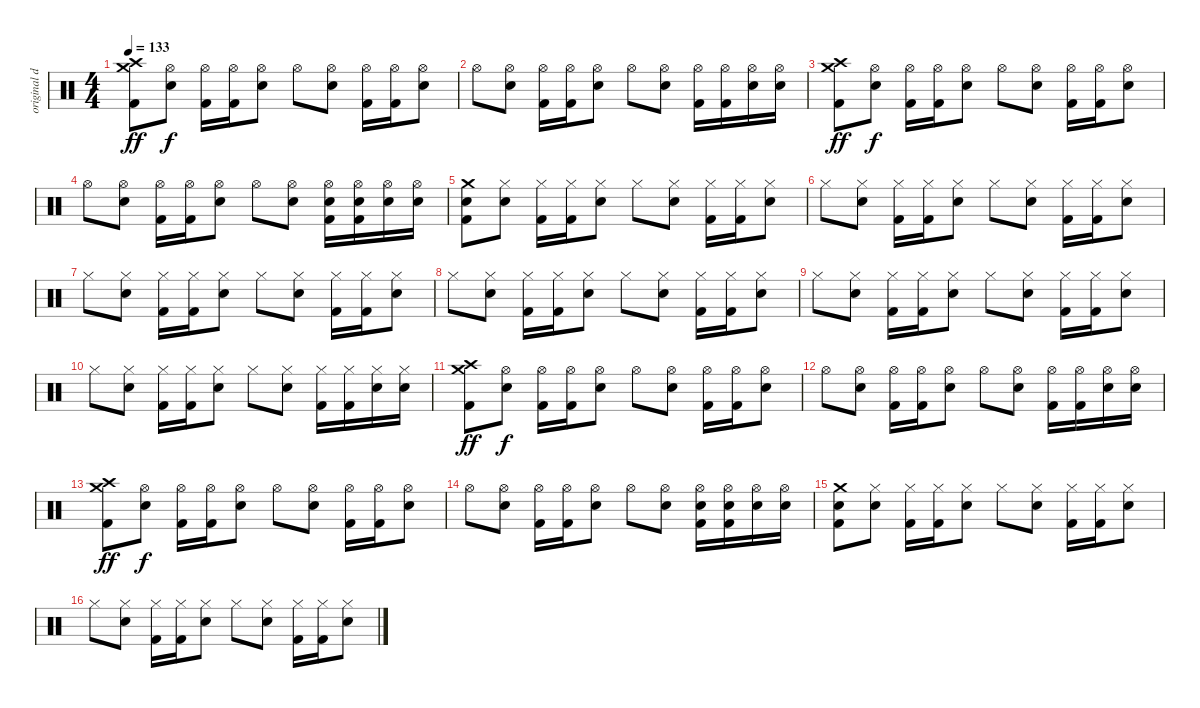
\track ("original drums" "original d") {instrument percussion}
\staff {score}
\articulation defaults
\ts (4 4)
\tempo 133
\clef neutral
\ks c
("Crash high (hit)" "Crash medium (hit)" "Kick (hit) 2").8{dy ff} ("Hi-Hat (open)" "Electric Snare (hit)").8{dy f} ("Hi-Hat (open)" "Kick (hit) 2").16 ("Hi-Hat (open)" "Kick (hit) 2").16 ("Hi-Hat (open)" "Electric Snare (hit)").8 "Hi-Hat (open)".8 ("Hi-Hat (open)" "Electric Snare (hit)").8 ("Hi-Hat (open)" "Kick (hit) 2").16 ("Hi-Hat (open)" "Kick (hit) 2").16 ("Hi-Hat (open)" "Electric Snare (hit)").8 |
"Hi-Hat (open)".8 ("Hi-Hat (open)" "Electric Snare (hit)").8 ("Hi-Hat (open)" "Kick (hit) 2").16 ("Hi-Hat (open)" "Kick (hit) 2").16 ("Hi-Hat (open)" "Electric Snare (hit)").8 "Hi-Hat (open)".8 ("Hi-Hat (open)" "Electric Snare (hit)").8 ("Hi-Hat (open)" "Kick (hit) 2").16 ("Hi-Hat (open)" "Kick (hit) 2").16 ("Hi-Hat (open)" "Electric Snare (hit)").16 ("Hi-Hat (open)" "Electric Snare (hit)").16 |
("Crash high (hit)" "Crash medium (hit)" "Kick (hit) 2").8{dy ff} ("Hi-Hat (open)" "Electric Snare (hit)").8{dy f} ("Hi-Hat (open)" "Kick (hit) 2").16 ("Hi-Hat (open)" "Kick (hit) 2").16 ("Hi-Hat (open)" "Electric Snare (hit)").8 "Hi-Hat (open)".8 ("Hi-Hat (open)" "Electric Snare (hit)").8 ("Hi-Hat (open)" "Kick (hit) 2").16 ("Hi-Hat (open)" "Kick (hit) 2").16 ("Hi-Hat (open)" "Electric Snare (hit)").8 |
"Hi-Hat (open)".8 ("Hi-Hat (open)" "Electric Snare (hit)").8 ("Hi-Hat (open)" "Kick (hit) 2").16 ("Hi-Hat (open)" "Kick (hit) 2").16 ("Hi-Hat (open)" "Electric Snare (hit)").8 "Hi-Hat (open)".8 ("Hi-Hat (open)" "Electric Snare (hit)").8 ("Hi-Hat (open)" "Electric Snare (hit)" "Kick (hit) 2").16 ("Hi-Hat (open)" "Electric Snare (hit)" "Kick (hit) 2").16 ("Hi-Hat (open)" "Electric Snare (hit)").16 ("Hi-Hat (open)" "Electric Snare (hit)").16 |
("Crash medium (hit)" "Electric Snare (hit)" "Kick (hit) 2").8 ("Hi-Hat (closed)" "Electric Snare (hit)").8 ("Hi-Hat (closed)" "Kick (hit) 2").16 ("Hi-Hat (closed)" "Kick (hit) 2").16 ("Hi-Hat (closed)" "Electric Snare (hit)").8 "Hi-Hat (closed)".8 ("Hi-Hat (closed)" "Electric Snare (hit)").8 ("Hi-Hat (closed)" "Kick (hit) 2").16 ("Hi-Hat (closed)" "Kick (hit) 2").16 ("Hi-Hat (closed)" "Electric Snare (hit)").8 |
"Hi-Hat (closed)".8 ("Hi-Hat (closed)" "Electric Snare (hit)").8 ("Hi-Hat (closed)" "Kick (hit) 2").16 ("Hi-Hat (closed)" "Kick (hit) 2").16 ("Hi-Hat (closed)" "Electric Snare (hit)").8 "Hi-Hat (closed)".8 ("Hi-Hat (closed)" "Electric Snare (hit)").8 ("Hi-Hat (closed)" "Kick (hit) 2").16 ("Hi-Hat (closed)" "Kick (hit) 2").16 ("Hi-Hat (closed)" "Electric Snare (hit)").8 |
"Hi-Hat (closed)".8 ("Hi-Hat (closed)" "Electric Snare (hit)").8 ("Hi-Hat (closed)" "Kick (hit) 2").16 ("Hi-Hat (closed)" "Kick (hit) 2").16 ("Hi-Hat (closed)" "Electric Snare (hit)").8 "Hi-Hat (closed)".8 ("Hi-Hat (closed)" "Electric Snare (hit)").8 ("Hi-Hat (closed)" "Kick (hit) 2").16 ("Hi-Hat (closed)" "Kick (hit) 2").16 ("Hi-Hat (closed)" "Electric Snare (hit)").8 |
"Hi-Hat (closed)".8 ("Hi-Hat (closed)" "Electric Snare (hit)").8 ("Hi-Hat (closed)" "Kick (hit) 2").16 ("Hi-Hat (closed)" "Kick (hit) 2").16 ("Hi-Hat (closed)" "Electric Snare (hit)").8 "Hi-Hat (closed)".8 ("Hi-Hat (closed)" "Electric Snare (hit)").8 ("Hi-Hat (closed)" "Kick (hit) 2").16 ("Hi-Hat (closed)" "Kick (hit) 2").16 ("Hi-Hat (closed)" "Electric Snare (hit)").8 |
"Hi-Hat (closed)".8 ("Hi-Hat (closed)" "Electric Snare (hit)").8 ("Hi-Hat (closed)" "Kick (hit) 2").16 ("Hi-Hat (closed)" "Kick (hit) 2").16 ("Hi-Hat (closed)" "Electric Snare (hit)").8 "Hi-Hat (closed)".8 ("Hi-Hat (closed)" "Electric Snare (hit)").8 ("Hi-Hat (closed)" "Kick (hit) 2").16 ("Hi-Hat (closed)" "Kick (hit) 2").16 ("Hi-Hat (closed)" "Electric Snare (hit)").8 |
"Hi-Hat (closed)".8 ("Hi-Hat (closed)" "Electric Snare (hit)").8 ("Hi-Hat (closed)" "Kick (hit) 2").16 ("Hi-Hat (closed)" "Kick (hit) 2").16 ("Hi-Hat (closed)" "Electric Snare (hit)").8 "Hi-Hat (closed)".8 ("Hi-Hat (closed)" "Electric Snare (hit)").8 ("Hi-Hat (closed)" "Kick (hit) 2").16 ("Hi-Hat (closed)" "Kick (hit) 2").16 ("Hi-Hat (closed)" "Electric Snare (hit)").16 ("Hi-Hat (closed)" "Electric Snare (hit)").16 |
("Crash high (hit)" "Crash medium (hit)" "Kick (hit) 2").8{dy ff} ("Hi-Hat (open)" "Electric Snare (hit)").8{dy f} ("Hi-Hat (open)" "Kick (hit) 2").16 ("Hi-Hat (open)" "Kick (hit) 2").16 ("Hi-Hat (open)" "Electric Snare (hit)").8 "Hi-Hat (open)".8 ("Hi-Hat (open)" "Electric Snare (hit)").8 ("Hi-Hat (open)" "Kick (hit) 2").16 ("Hi-Hat (open)" "Kick (hit) 2").16 ("Hi-Hat (open)" "Electric Snare (hit)").8 |
"Hi-Hat (open)".8 ("Hi-Hat (open)" "Electric Snare (hit)").8 ("Hi-Hat (open)" "Kick (hit) 2").16 ("Hi-Hat (open)" "Kick (hit) 2").16 ("Hi-Hat (open)" "Electric Snare (hit)").8 "Hi-Hat (open)".8 ("Hi-Hat (open)" "Electric Snare (hit)").8 ("Hi-Hat (open)" "Kick (hit) 2").16 ("Hi-Hat (open)" "Kick (hit) 2").16 ("Hi-Hat (open)" "Electric Snare (hit)").16 ("Hi-Hat (open)" "Electric Snare (hit)").16 |
("Crash high (hit)" "Crash medium (hit)" "Kick (hit) 2").8{dy ff} ("Hi-Hat (open)" "Electric Snare (hit)").8{dy f} ("Hi-Hat (open)" "Kick (hit) 2").16 ("Hi-Hat (open)" "Kick (hit) 2").16 ("Hi-Hat (open)" "Electric Snare (hit)").8 "Hi-Hat (open)".8 ("Hi-Hat (open)" "Electric Snare (hit)").8 ("Hi-Hat (open)" "Kick (hit) 2").16 ("Hi-Hat (open)" "Kick (hit) 2").16 ("Hi-Hat (open)" "Electric Snare (hit)").8 |
"Hi-Hat (open)".8 ("Hi-Hat (open)" "Electric Snare (hit)").8 ("Hi-Hat (open)" "Kick (hit) 2").16 ("Hi-Hat (open)" "Kick (hit) 2").16 ("Hi-Hat (open)" "Electric Snare (hit)").8 "Hi-Hat (open)".8 ("Hi-Hat (open)" "Electric Snare (hit)").8 ("Hi-Hat (open)" "Electric Snare (hit)" "Kick (hit) 2").16 ("Hi-Hat (open)" "Electric Snare (hit)" "Kick (hit) 2").16 ("Hi-Hat (open)" "Electric Snare (hit)").16 ("Hi-Hat (open)" "Electric Snare (hit)").16 |
("Crash medium (hit)" "Electric Snare (hit)" "Kick (hit) 2").8 ("Hi-Hat (closed)" "Electric Snare (hit)").8 ("Hi-Hat (closed)" "Kick (hit) 2").16 ("Hi-Hat (closed)" "Kick (hit) 2").16 ("Hi-Hat (closed)" "Electric Snare (hit)").8 "Hi-Hat (closed)".8 ("Hi-Hat (closed)" "Electric Snare (hit)").8 ("Hi-Hat (closed)" "Kick (hit) 2").16 ("Hi-Hat (closed)" "Kick (hit) 2").16 ("Hi-Hat (closed)" "Electric Snare (hit)").8 |
"Hi-Hat (closed)".8 ("Hi-Hat (closed)" "Electric Snare (hit)").8 ("Hi-Hat (closed)" "Kick (hit) 2").16 ("Hi-Hat (closed)" "Kick (hit) 2").16 ("Hi-Hat (closed)" "Electric Snare (hit)").8 "Hi-Hat (closed)".8 ("Hi-Hat (closed)" "Electric Snare (hit)").8 ("Hi-Hat (closed)" "Kick (hit) 2").16 ("Hi-Hat (closed)" "Kick (hit) 2").16 ("Hi-Hat (closed)" "Electric Snare (hit)").8
